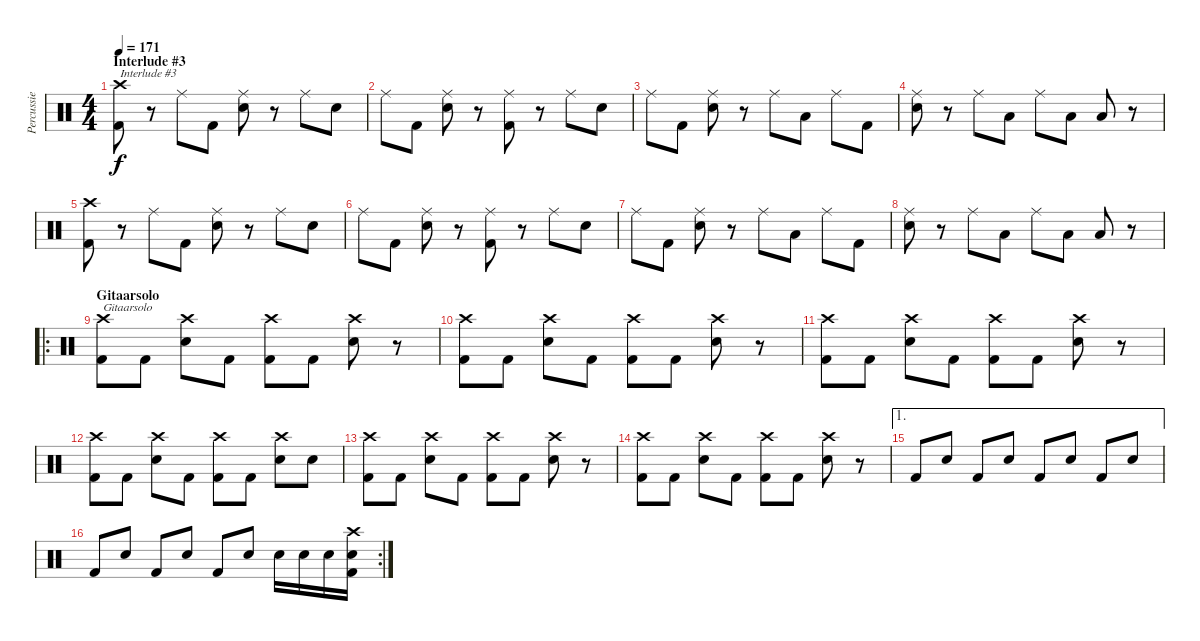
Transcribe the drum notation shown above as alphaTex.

\track ("Percussie" "Percussie") {instrument percussion}
\staff {score}
\articulation defaults
\ts (4 4)
\section ("" "Interlude #3")
\tempo 171
\clef neutral
\ks c
("Crash high (hit)" "Kick (hit) 2").8{txt "Interlude #3" dy f} r.8 "Ride (middle)".8 "Kick (hit) 2".8 ("Ride (middle)" "Snare (hit) 2").8 r.8 "Ride (middle)".8 "Snare (hit) 2".8 |
"Ride (middle)".8 "Kick (hit) 2".8 ("Ride (middle)" "Snare (hit) 2").8 r.8 ("Ride (middle)" "Kick (hit) 2").8 r.8 "Ride (middle)".8 "Snare (hit) 2".8 |
"Ride (middle)".8 "Kick (hit) 2".8 ("Ride (middle)" "Snare (hit) 2").8 r.8 "Ride (middle)".8 "Low Floor Tom (hit)".8 "Ride (middle)".8 "Kick (hit) 2".8 |
("Ride (middle)" "Snare (hit) 2").8 r.8 "Ride (middle)".8 "Low Tom (hit)".8 "Ride (middle)".8 "Low Floor Tom (hit)".8 "Low Floor Tom (hit)".8 r.8 |
("Crash high (hit)" "Kick (hit) 2").8 r.8 "Ride (middle)".8 "Kick (hit) 2".8 ("Ride (middle)" "Snare (hit) 2").8 r.8 "Ride (middle)".8 "Snare (hit) 2".8 |
"Ride (middle)".8 "Kick (hit) 2".8 ("Ride (middle)" "Snare (hit) 2").8 r.8 ("Ride (middle)" "Kick (hit) 2").8 r.8 "Ride (middle)".8 "Snare (hit) 2".8 |
"Ride (middle)".8 "Kick (hit) 2".8 ("Ride (middle)" "Snare (hit) 2").8 r.8 "Ride (middle)".8 "Low Floor Tom (hit)".8 "Ride (middle)".8 "Kick (hit) 2".8 |
("Ride (middle)" "Snare (hit) 2").8 r.8 "Ride (middle)".8 "Low Tom (hit)".8 "Ride (middle)".8 "Low Floor Tom (hit)".8 "Low Floor Tom (hit)".8 r.8 |
\ro
\section ("" "Gitaarsolo")
("Crash high (hit)" "Kick (hit) 2").8{txt "Gitaarsolo"} "Kick (hit) 2".8 ("Crash high (hit)" "Snare (hit) 2").8 "Kick (hit) 2".8 ("Crash high (hit)" "Kick (hit) 2").8 "Kick (hit) 2".8 ("Crash high (hit)" "Snare (hit) 2").8 r.8 |
("Crash high (hit)" "Kick (hit) 2").8 "Kick (hit) 2".8 ("Crash high (hit)" "Snare (hit) 2").8 "Kick (hit) 2".8 ("Crash high (hit)" "Kick (hit) 2").8 "Kick (hit) 2".8 ("Crash high (hit)" "Snare (hit) 2").8 r.8 |
("Crash high (hit)" "Kick (hit) 2").8 "Kick (hit) 2".8 ("Crash high (hit)" "Snare (hit) 2").8 "Kick (hit) 2".8 ("Crash high (hit)" "Kick (hit) 2").8 "Kick (hit) 2".8 ("Crash high (hit)" "Snare (hit) 2").8 r.8 |
("Crash high (hit)" "Kick (hit) 2").8 "Kick (hit) 2".8 ("Crash high (hit)" "Snare (hit) 2").8 "Kick (hit) 2".8 ("Crash high (hit)" "Kick (hit) 2").8 "Kick (hit) 2".8 ("Crash high (hit)" "Snare (hit) 2").8 "Snare (hit) 2".8 |
("Crash high (hit)" "Kick (hit) 2").8 "Kick (hit) 2".8 ("Crash high (hit)" "Snare (hit) 2").8 "Kick (hit) 2".8 ("Crash high (hit)" "Kick (hit) 2").8 "Kick (hit) 2".8 ("Crash high (hit)" "Snare (hit) 2").8 r.8 |
("Crash high (hit)" "Kick (hit) 2").8 "Kick (hit) 2".8 ("Crash high (hit)" "Snare (hit) 2").8 "Kick (hit) 2".8 ("Crash high (hit)" "Kick (hit) 2").8 "Kick (hit) 2".8 ("Crash high (hit)" "Snare (hit) 2").8 r.8 |
\ae 1 "Kick (hit) 2".8 "Snare (hit) 2".8 "Kick (hit) 2".8 "Snare (hit) 2".8 "Kick (hit) 2".8 "Snare (hit) 2".8 "Kick (hit) 2".8 "Snare (hit) 2".8
|
\rc 2 "Kick (hit) 2".8 "Snare (hit) 2".8 "Kick (hit) 2".8 "Snare (hit) 2".8 "Kick (hit) 2".8 "Snare (hit) 2".8 "Snare (hit) 2".16 "Snare (hit) 2".16 "Snare (hit) 2".16
("Crash high (hit)" "Snare (hit) 2" "Kick (hit) 2").16
